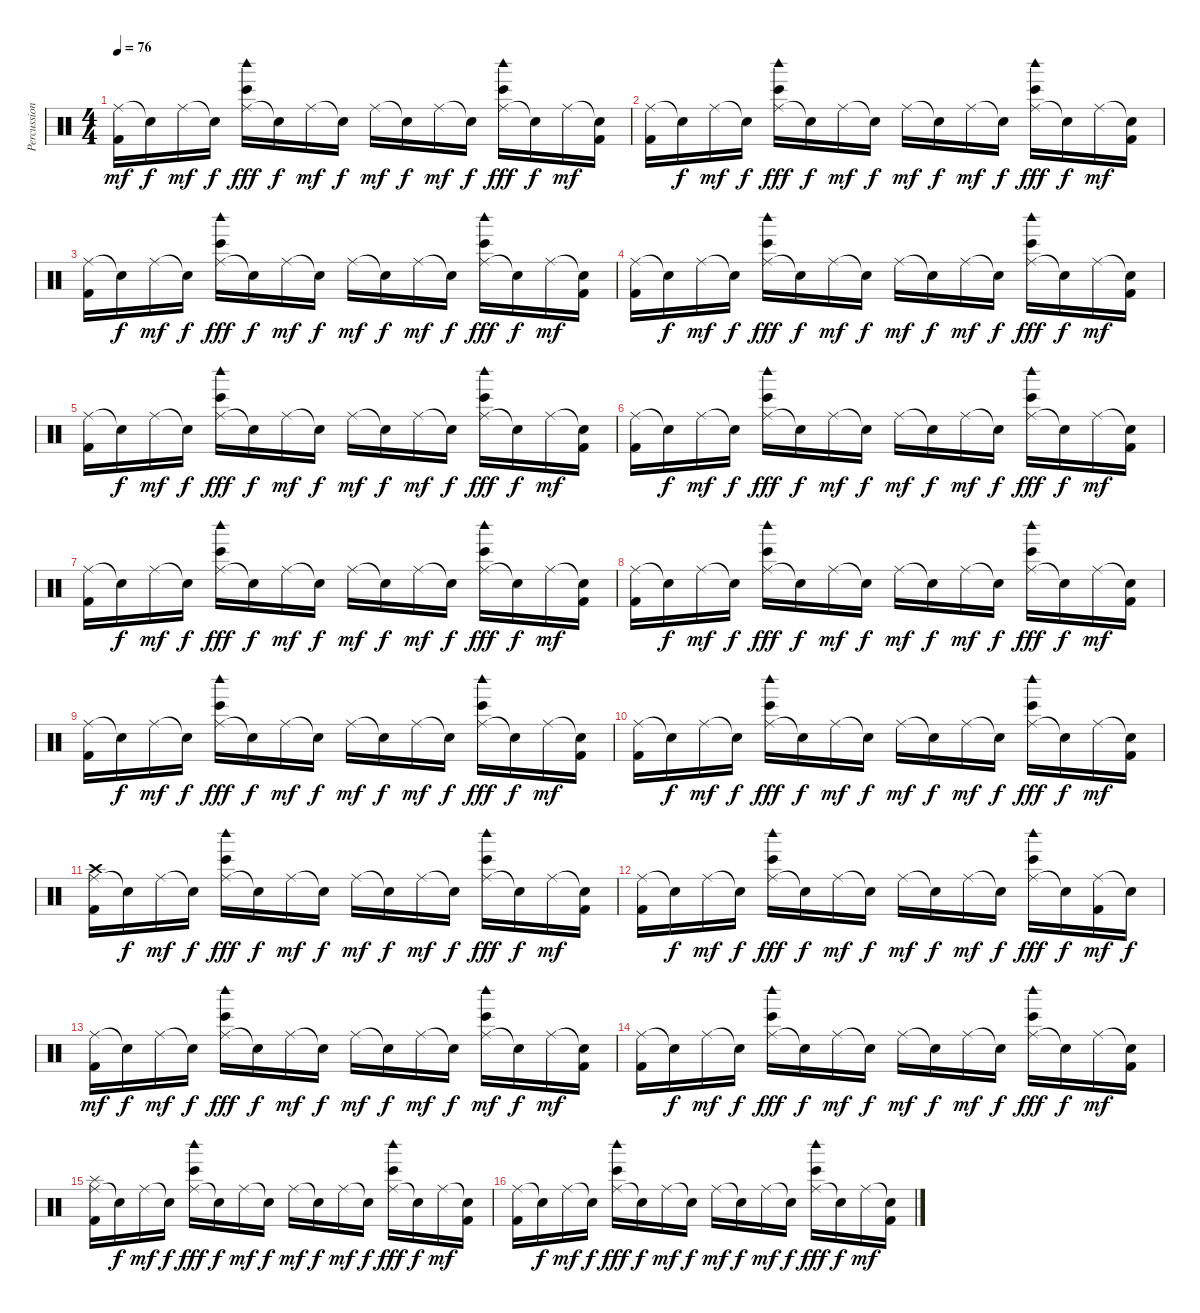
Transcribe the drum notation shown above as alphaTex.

\track ("Percussion" "Percussion") {instrument percussion}
\staff {score}
\articulation defaults
\ts (4 4)
\tempo 76
\clef neutral
\ks c
("Ride (middle)" "Kick (hit) 2").16{dy mf} "Snare (hit)"{t}.16{dy f} "Ride (middle)".16{dy mf} "Snare (hit)"{t}.16{dy f} ("Ride (middle)" "Woodblock high (hit)" "Bongo High (hit)").16{dy fff} "Snare (hit)"{t}.16{dy f} "Ride (middle)".16{dy mf} "Snare (hit)"{t}.16{dy f} "Ride (middle)".16{dy mf} "Snare (hit)"{t}.16{dy f} "Ride (middle)".16{dy mf} "Snare (hit)"{t}.16{dy f} ("Ride (middle)" "Woodblock high (hit)" "Bongo High (hit)").16{dy fff} "Snare (hit)"{t}.16{dy f} "Ride (middle)".16{dy mf} ("Snare (hit)"{t} "Kick (hit) 2").16 |
("Ride (middle)" "Kick (hit) 2").16 "Snare (hit)"{t}.16{dy f} "Ride (middle)".16{dy mf} "Snare (hit)"{t}.16{dy f} ("Ride (middle)" "Woodblock high (hit)" "Bongo High (hit)").16{dy fff} "Snare (hit)"{t}.16{dy f} "Ride (middle)".16{dy mf} "Snare (hit)"{t}.16{dy f} "Ride (middle)".16{dy mf} "Snare (hit)"{t}.16{dy f} "Ride (middle)".16{dy mf} "Snare (hit)"{t}.16{dy f} ("Ride (middle)" "Woodblock high (hit)" "Bongo High (hit)").16{dy fff} "Snare (hit)"{t}.16{dy f} "Ride (middle)".16{dy mf} ("Snare (hit)"{t} "Kick (hit) 2").16 |
("Ride (middle)" "Kick (hit) 2").16 "Snare (hit)"{t}.16{dy f} "Ride (middle)".16{dy mf} "Snare (hit)"{t}.16{dy f} ("Ride (middle)" "Woodblock high (hit)" "Bongo High (hit)").16{dy fff} "Snare (hit)"{t}.16{dy f} "Ride (middle)".16{dy mf} "Snare (hit)"{t}.16{dy f} "Ride (middle)".16{dy mf} "Snare (hit)"{t}.16{dy f} "Ride (middle)".16{dy mf} "Snare (hit)"{t}.16{dy f} ("Ride (middle)" "Woodblock high (hit)" "Bongo High (hit)").16{dy fff} "Snare (hit)"{t}.16{dy f} "Ride (middle)".16{dy mf} ("Snare (hit)"{t} "Kick (hit) 2").16 |
("Ride (middle)" "Kick (hit) 2").16 "Snare (hit)"{t}.16{dy f} "Ride (middle)".16{dy mf} "Snare (hit)"{t}.16{dy f} ("Ride (middle)" "Woodblock high (hit)" "Bongo High (hit)").16{dy fff} "Snare (hit)"{t}.16{dy f} "Ride (middle)".16{dy mf} "Snare (hit)"{t}.16{dy f} "Ride (middle)".16{dy mf} "Snare (hit)"{t}.16{dy f} "Ride (middle)".16{dy mf} "Snare (hit)"{t}.16{dy f} ("Ride (middle)" "Woodblock high (hit)" "Bongo High (hit)").16{dy fff} "Snare (hit)"{t}.16{dy f} "Ride (middle)".16{dy mf} ("Snare (hit)"{t} "Kick (hit) 2").16 |
("Ride (middle)" "Kick (hit) 2").16 "Snare (hit)"{t}.16{dy f} "Ride (middle)".16{dy mf} "Snare (hit)"{t}.16{dy f} ("Ride (middle)" "Woodblock high (hit)" "Bongo High (hit)").16{dy fff} "Snare (hit)"{t}.16{dy f} "Ride (middle)".16{dy mf} "Snare (hit)"{t}.16{dy f} "Ride (middle)".16{dy mf} "Snare (hit)"{t}.16{dy f} "Ride (middle)".16{dy mf} "Snare (hit)"{t}.16{dy f} ("Ride (middle)" "Woodblock high (hit)" "Bongo High (hit)").16{dy fff} "Snare (hit)"{t}.16{dy f} "Ride (middle)".16{dy mf} ("Snare (hit)"{t} "Kick (hit) 2").16 |
("Ride (middle)" "Kick (hit) 2").16 "Snare (hit)"{t}.16{dy f} "Ride (middle)".16{dy mf} "Snare (hit)"{t}.16{dy f} ("Ride (middle)" "Woodblock high (hit)" "Bongo High (hit)").16{dy fff} "Snare (hit)"{t}.16{dy f} "Ride (middle)".16{dy mf} "Snare (hit)"{t}.16{dy f} "Ride (middle)".16{dy mf} "Snare (hit)"{t}.16{dy f} "Ride (middle)".16{dy mf} "Snare (hit)"{t}.16{dy f} ("Ride (middle)" "Woodblock high (hit)" "Bongo High (hit)").16{dy fff} "Snare (hit)"{t}.16{dy f} "Ride (middle)".16{dy mf} ("Snare (hit)"{t} "Kick (hit) 2").16 |
("Ride (middle)" "Kick (hit) 2").16 "Snare (hit)"{t}.16{dy f} "Ride (middle)".16{dy mf} "Snare (hit)"{t}.16{dy f} ("Ride (middle)" "Woodblock high (hit)" "Bongo High (hit)").16{dy fff} "Snare (hit)"{t}.16{dy f} "Ride (middle)".16{dy mf} "Snare (hit)"{t}.16{dy f} "Ride (middle)".16{dy mf} "Snare (hit)"{t}.16{dy f} "Ride (middle)".16{dy mf} "Snare (hit)"{t}.16{dy f} ("Ride (middle)" "Woodblock high (hit)" "Bongo High (hit)").16{dy fff} "Snare (hit)"{t}.16{dy f} "Ride (middle)".16{dy mf} ("Snare (hit)"{t} "Kick (hit) 2").16 |
("Ride (middle)" "Kick (hit) 2").16 "Snare (hit)"{t}.16{dy f} "Ride (middle)".16{dy mf} "Snare (hit)"{t}.16{dy f} ("Ride (middle)" "Woodblock high (hit)" "Bongo High (hit)").16{dy fff} "Snare (hit)"{t}.16{dy f} "Ride (middle)".16{dy mf} "Snare (hit)"{t}.16{dy f} "Ride (middle)".16{dy mf} "Snare (hit)"{t}.16{dy f} "Ride (middle)".16{dy mf} "Snare (hit)"{t}.16{dy f} ("Ride (middle)" "Woodblock high (hit)" "Bongo High (hit)").16{dy fff} "Snare (hit)"{t}.16{dy f} "Ride (middle)".16{dy mf} ("Snare (hit)"{t} "Kick (hit) 2").16 |
("Ride (middle)" "Kick (hit) 2").16 "Snare (hit)"{t}.16{dy f} "Ride (middle)".16{dy mf} "Snare (hit)"{t}.16{dy f} ("Ride (middle)" "Woodblock high (hit)" "Bongo High (hit)").16{dy fff} "Snare (hit)"{t}.16{dy f} "Ride (middle)".16{dy mf} "Snare (hit)"{t}.16{dy f} "Ride (middle)".16{dy mf} "Snare (hit)"{t}.16{dy f} "Ride (middle)".16{dy mf} "Snare (hit)"{t}.16{dy f} ("Ride (middle)" "Woodblock high (hit)" "Bongo High (hit)").16{dy fff} "Snare (hit)"{t}.16{dy f} "Ride (middle)".16{dy mf} ("Snare (hit)"{t} "Kick (hit) 2").16 |
("Ride (middle)" "Kick (hit) 2").16 "Snare (hit)"{t}.16{dy f} "Ride (middle)".16{dy mf} "Snare (hit)"{t}.16{dy f} ("Ride (middle)" "Woodblock high (hit)" "Bongo High (hit)").16{dy fff} "Snare (hit)"{t}.16{dy f} "Ride (middle)".16{dy mf} "Snare (hit)"{t}.16{dy f} "Ride (middle)".16{dy mf} "Snare (hit)"{t}.16{dy f} "Ride (middle)".16{dy mf} "Snare (hit)"{t}.16{dy f} ("Ride (middle)" "Woodblock high (hit)" "Bongo High (hit)").16{dy fff} "Snare (hit)"{t}.16{dy f} "Ride (middle)".16{dy mf} ("Snare (hit)"{t} "Kick (hit) 2").16 |
("Ride (middle)" "Crash high (hit)" "Kick (hit) 2").16 "Snare (hit)"{t}.16{dy f} "Ride (middle)".16{dy mf} "Snare (hit)"{t}.16{dy f} ("Ride (middle)" "Woodblock high (hit)" "Bongo High (hit)").16{dy fff} "Snare (hit)"{t}.16{dy f} "Ride (middle)".16{dy mf} "Snare (hit)"{t}.16{dy f} "Ride (middle)".16{dy mf} "Snare (hit)"{t}.16{dy f} "Ride (middle)".16{dy mf} "Snare (hit)"{t}.16{dy f} ("Ride (middle)" "Woodblock high (hit)" "Bongo High (hit)").16{dy fff} "Snare (hit)"{t}.16{dy f} "Ride (middle)".16{dy mf} ("Snare (hit)"{t} "Kick (hit) 2").16 |
("Ride (middle)" "Kick (hit) 2").16 "Snare (hit)"{t}.16{dy f} "Ride (middle)".16{dy mf} "Snare (hit)"{t}.16{dy f} ("Ride (middle)" "Woodblock high (hit)" "Bongo High (hit)").16{dy fff} "Snare (hit)"{t}.16{dy f} "Ride (middle)".16{dy mf} "Snare (hit)"{t}.16{dy f} "Ride (middle)".16{dy mf} "Snare (hit)"{t}.16{dy f} "Ride (middle)".16{dy mf} "Snare (hit)"{t}.16{dy f} ("Ride (middle)" "Woodblock high (hit)" "Bongo High (hit)").16{dy fff} "Snare (hit)"{t}.16{dy f} ("Ride (middle)" "Kick (hit) 2").16{dy mf} "Snare (hit)"{t}.16{dy f} |
("Ride (middle)" "Kick (hit) 2").16{dy mf} "Snare (hit)"{t}.16{dy f} "Ride (middle)".16{dy mf} "Snare (hit)"{t}.16{dy f} ("Ride (middle)" "Woodblock high (hit)" "Bongo High (hit)").16{dy fff} "Snare (hit)"{t}.16{dy f} "Ride (middle)".16{dy mf} "Snare (hit)"{t}.16{dy f} "Ride (middle)".16{dy mf} "Snare (hit)"{t}.16{dy f} "Ride (middle)".16{dy mf} "Snare (hit)"{t}.16{dy f} ("Ride (middle)" "Woodblock high (hit)" "Bongo High (hit)").16{dy mf} "Snare (hit)"{t}.16{dy f} "Ride (middle)".16{dy mf} ("Snare (hit)"{t} "Kick (hit) 2").16 |
("Ride (middle)" "Kick (hit) 2").16 "Snare (hit)"{t}.16{dy f} "Ride (middle)".16{dy mf} "Snare (hit)"{t}.16{dy f} ("Ride (middle)" "Woodblock high (hit)" "Bongo High (hit)").16{dy fff} "Snare (hit)"{t}.16{dy f} "Ride (middle)".16{dy mf} "Snare (hit)"{t}.16{dy f} "Ride (middle)".16{dy mf} "Snare (hit)"{t}.16{dy f} "Ride (middle)".16{dy mf} "Snare (hit)"{t}.16{dy f} ("Ride (middle)" "Woodblock high (hit)" "Bongo High (hit)").16{dy fff} "Snare (hit)"{t}.16{dy f} "Ride (middle)".16{dy mf} ("Snare (hit)"{t} "Kick (hit) 2").16 |
("Ride (middle)" "Splash (hit)" "Kick (hit) 2").16 "Snare (hit)"{t}.16{dy f} "Ride (middle)".16{dy mf} "Snare (hit)"{t}.16{dy f} ("Ride (middle)" "Woodblock high (hit)" "Bongo High (hit)").16{dy fff} "Snare (hit)"{t}.16{dy f} "Ride (middle)".16{dy mf} "Snare (hit)"{t}.16{dy f} "Ride (middle)".16{dy mf} "Snare (hit)"{t}.16{dy f} "Ride (middle)".16{dy mf} "Snare (hit)"{t}.16{dy f} ("Ride (middle)" "Woodblock high (hit)" "Bongo High (hit)").16{dy fff} "Snare (hit)"{t}.16{dy f} "Ride (middle)".16{dy mf} ("Snare (hit)"{t} "Kick (hit) 2").16 |
("Ride (middle)" "Kick (hit) 2").16 "Snare (hit)"{t}.16{dy f} "Ride (middle)".16{dy mf} "Snare (hit)"{t}.16{dy f} ("Ride (middle)" "Woodblock high (hit)" "Bongo High (hit)").16{dy fff} "Snare (hit)"{t}.16{dy f} "Ride (middle)".16{dy mf} "Snare (hit)"{t}.16{dy f} "Ride (middle)".16{dy mf} "Snare (hit)"{t}.16{dy f} "Ride (middle)".16{dy mf} "Snare (hit)"{t}.16{dy f} ("Ride (middle)" "Woodblock high (hit)" "Bongo High (hit)").16{dy fff} "Snare (hit)"{t}.16{dy f} "Ride (middle)".16{dy mf} ("Snare (hit)"{t} "Kick (hit) 2").16
